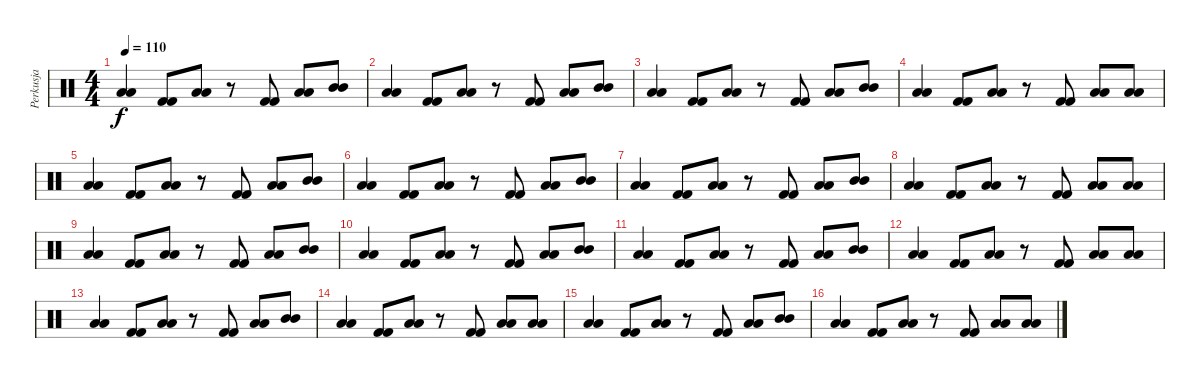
\track ("Perkusja" "Perkusja") {instrument percussion}
\staff {score}
\articulation defaults
\ts (4 4)
\tempo 110
\clef neutral
\ks c
("Low Tom (hit)" "Low Tom (hit)").4{dy f} ("Kick (hit) 2" "Kick (hit) 2").8 ("Low Tom (hit)" "Low Tom (hit)").8 r.8 ("Kick (hit) 2" "Kick (hit) 2").8 ("Low Tom (hit)" "Low Tom (hit)").8 ("Mid Tom (hit)" "Mid Tom (hit)").8 |
("Low Tom (hit)" "Low Tom (hit)").4 ("Kick (hit) 2" "Kick (hit) 2").8 ("Low Tom (hit)" "Low Tom (hit)").8 r.8 ("Kick (hit) 2" "Kick (hit) 2").8 ("Low Tom (hit)" "Low Tom (hit)").8 ("Mid Tom (hit)" "Mid Tom (hit)").8 |
("Low Tom (hit)" "Low Tom (hit)").4 ("Kick (hit) 2" "Kick (hit) 2").8 ("Low Tom (hit)" "Low Tom (hit)").8 r.8 ("Kick (hit) 2" "Kick (hit) 2").8 ("Low Tom (hit)" "Low Tom (hit)").8 ("Mid Tom (hit)" "Mid Tom (hit)").8 |
("Low Floor Tom (hit)" "Low Floor Tom (hit)").4 ("Kick (hit) 2" "Kick (hit) 2").8 ("Low Floor Tom (hit)" "Low Floor Tom (hit)").8 r.8 ("Kick (hit) 2" "Kick (hit) 2").8 ("Low Floor Tom (hit)" "Low Floor Tom (hit)").8 ("Low Tom (hit)" "Low Tom (hit)").8 |
("Low Tom (hit)" "Low Tom (hit)").4 ("Kick (hit) 2" "Kick (hit) 2").8 ("Low Tom (hit)" "Low Tom (hit)").8 r.8 ("Kick (hit) 2" "Kick (hit) 2").8 ("Low Tom (hit)" "Low Tom (hit)").8 ("Mid Tom (hit)" "Mid Tom (hit)").8 |
("Low Tom (hit)" "Low Tom (hit)").4 ("Kick (hit) 2" "Kick (hit) 2").8 ("Low Tom (hit)" "Low Tom (hit)").8 r.8 ("Kick (hit) 2" "Kick (hit) 2").8 ("Low Tom (hit)" "Low Tom (hit)").8 ("Mid Tom (hit)" "Mid Tom (hit)").8 |
("Low Tom (hit)" "Low Tom (hit)").4 ("Kick (hit) 2" "Kick (hit) 2").8 ("Low Tom (hit)" "Low Tom (hit)").8 r.8 ("Kick (hit) 2" "Kick (hit) 2").8 ("Low Tom (hit)" "Low Tom (hit)").8 ("Mid Tom (hit)" "Mid Tom (hit)").8 |
("Low Floor Tom (hit)" "Low Floor Tom (hit)").4 ("Kick (hit) 2" "Kick (hit) 2").8 ("Low Floor Tom (hit)" "Low Floor Tom (hit)").8 r.8 ("Kick (hit) 2" "Kick (hit) 2").8 ("Low Floor Tom (hit)" "Low Floor Tom (hit)").8 ("Low Tom (hit)" "Low Tom (hit)").8 |
("Low Tom (hit)" "Low Tom (hit)").4 ("Kick (hit) 2" "Kick (hit) 2").8 ("Low Tom (hit)" "Low Tom (hit)").8 r.8 ("Kick (hit) 2" "Kick (hit) 2").8 ("Low Tom (hit)" "Low Tom (hit)").8 ("Mid Tom (hit)" "Mid Tom (hit)").8 |
("Low Tom (hit)" "Low Tom (hit)").4 ("Kick (hit) 2" "Kick (hit) 2").8 ("Low Tom (hit)" "Low Tom (hit)").8 r.8 ("Kick (hit) 2" "Kick (hit) 2").8 ("Low Tom (hit)" "Low Tom (hit)").8 ("Mid Tom (hit)" "Mid Tom (hit)").8 |
("Low Tom (hit)" "Low Tom (hit)").4 ("Kick (hit) 2" "Kick (hit) 2").8 ("Low Tom (hit)" "Low Tom (hit)").8 r.8 ("Kick (hit) 2" "Kick (hit) 2").8 ("Low Tom (hit)" "Low Tom (hit)").8 ("Mid Tom (hit)" "Mid Tom (hit)").8 |
("Low Floor Tom (hit)" "Low Floor Tom (hit)").4 ("Kick (hit) 2" "Kick (hit) 2").8 ("Low Floor Tom (hit)" "Low Floor Tom (hit)").8 r.8 ("Kick (hit) 2" "Kick (hit) 2").8 ("Low Floor Tom (hit)" "Low Floor Tom (hit)").8 ("Low Tom (hit)" "Low Tom (hit)").8 |
("Low Tom (hit)" "Low Tom (hit)").4 ("Kick (hit) 2" "Kick (hit) 2").8 ("Low Tom (hit)" "Low Tom (hit)").8 r.8 ("Kick (hit) 2" "Kick (hit) 2").8 ("Low Tom (hit)" "Low Tom (hit)").8 ("Mid Tom (hit)" "Mid Tom (hit)").8 |
("Low Floor Tom (hit)" "Low Floor Tom (hit)").4 ("Kick (hit) 2" "Kick (hit) 2").8 ("Low Floor Tom (hit)" "Low Floor Tom (hit)").8 r.8 ("Kick (hit) 2" "Kick (hit) 2").8 ("Low Floor Tom (hit)" "Low Floor Tom (hit)").8 ("Low Tom (hit)" "Low Tom (hit)").8 |
("Low Tom (hit)" "Low Tom (hit)").4 ("Kick (hit) 2" "Kick (hit) 2").8 ("Low Tom (hit)" "Low Tom (hit)").8 r.8 ("Kick (hit) 2" "Kick (hit) 2").8 ("Low Tom (hit)" "Low Tom (hit)").8 ("Mid Tom (hit)" "Mid Tom (hit)").8 |
("Low Floor Tom (hit)" "Low Floor Tom (hit)").4 ("Kick (hit) 2" "Kick (hit) 2").8 ("Low Floor Tom (hit)" "Low Floor Tom (hit)").8 r.8 ("Kick (hit) 2" "Kick (hit) 2").8 ("Low Floor Tom (hit)" "Low Floor Tom (hit)").8 ("Low Tom (hit)" "Low Tom (hit)").8
